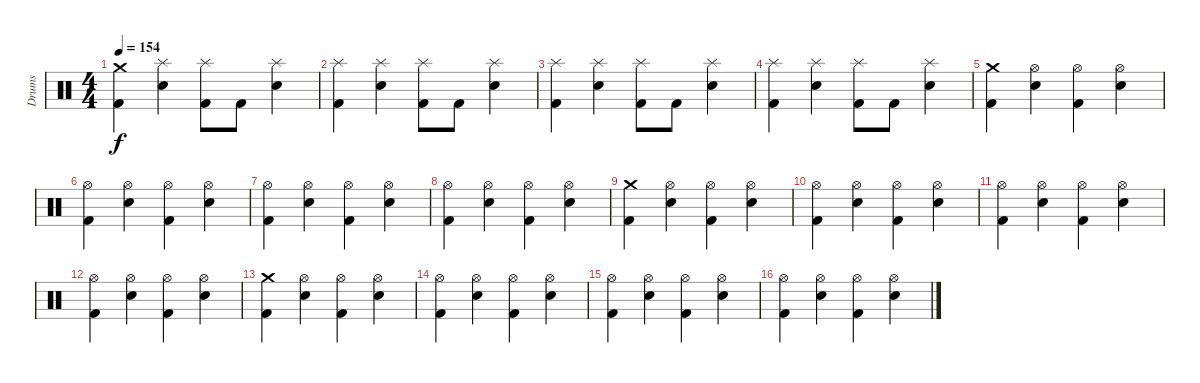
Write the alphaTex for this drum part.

\track ("Drums" "Drums") {instrument percussion}
\staff {score}
\articulation defaults
\ts (4 4)
\tempo 154
\clef neutral
\ks c
("Kick (hit) 2" "Crash medium (hit)").4{dy f} ("Splash (hit)" "Electric Snare (hit)").4 ("Kick (hit) 2" "Splash (hit)").8 "Kick (hit) 2".8 ("Splash (hit)" "Electric Snare (hit)").4 |
("Kick (hit) 2" "Splash (hit)").4 ("Splash (hit)" "Electric Snare (hit)").4 ("Kick (hit) 2" "Splash (hit)").8 "Kick (hit) 2".8 ("Splash (hit)" "Electric Snare (hit)").4 |
("Kick (hit) 2" "Splash (hit)").4 ("Electric Snare (hit)" "Splash (hit)").4 ("Kick (hit) 2" "Splash (hit)").8 "Kick (hit) 2".8 ("Electric Snare (hit)" "Splash (hit)").4 |
("Kick (hit) 2" "Splash (hit)").4 ("Electric Snare (hit)" "Splash (hit)").4 ("Kick (hit) 2" "Splash (hit)").8 "Kick (hit) 2".8 ("Electric Snare (hit)" "Splash (hit)").4 |
("Crash medium (hit)" "Kick (hit) 2").4 ("Hi-Hat (open)" "Electric Snare (hit)").4 ("Hi-Hat (open)" "Kick (hit) 2").4 ("Hi-Hat (open)" "Electric Snare (hit)").4 |
("Hi-Hat (open)" "Kick (hit) 2").4 ("Hi-Hat (open)" "Electric Snare (hit)").4 ("Hi-Hat (open)" "Kick (hit) 2").4 ("Hi-Hat (open)" "Electric Snare (hit)").4 |
("Kick (hit) 2" "Hi-Hat (open)").4 ("Electric Snare (hit)" "Hi-Hat (open)").4 ("Kick (hit) 2" "Hi-Hat (open)").4 ("Electric Snare (hit)" "Hi-Hat (open)").4 |
("Kick (hit) 2" "Hi-Hat (open)").4 ("Electric Snare (hit)" "Hi-Hat (open)").4 ("Kick (hit) 2" "Hi-Hat (open)").4 ("Electric Snare (hit)" "Hi-Hat (open)").4 |
("Crash medium (hit)" "Kick (hit) 2").4 ("Hi-Hat (open)" "Electric Snare (hit)").4 ("Hi-Hat (open)" "Kick (hit) 2").4 ("Hi-Hat (open)" "Electric Snare (hit)").4 |
("Hi-Hat (open)" "Kick (hit) 2").4 ("Hi-Hat (open)" "Electric Snare (hit)").4 ("Hi-Hat (open)" "Kick (hit) 2").4 ("Hi-Hat (open)" "Electric Snare (hit)").4 |
("Kick (hit) 2" "Hi-Hat (open)").4 ("Electric Snare (hit)" "Hi-Hat (open)").4 ("Kick (hit) 2" "Hi-Hat (open)").4 ("Electric Snare (hit)" "Hi-Hat (open)").4 |
("Kick (hit) 2" "Hi-Hat (open)").4 ("Electric Snare (hit)" "Hi-Hat (open)").4 ("Kick (hit) 2" "Hi-Hat (open)").4 ("Electric Snare (hit)" "Hi-Hat (open)").4 |
("Crash medium (hit)" "Kick (hit) 2").4 ("Hi-Hat (open)" "Electric Snare (hit)").4 ("Hi-Hat (open)" "Kick (hit) 2").4 ("Hi-Hat (open)" "Electric Snare (hit)").4 |
("Hi-Hat (open)" "Kick (hit) 2").4 ("Hi-Hat (open)" "Electric Snare (hit)").4 ("Hi-Hat (open)" "Kick (hit) 2").4 ("Hi-Hat (open)" "Electric Snare (hit)").4 |
("Kick (hit) 2" "Hi-Hat (open)").4 ("Electric Snare (hit)" "Hi-Hat (open)").4 ("Kick (hit) 2" "Hi-Hat (open)").4 ("Electric Snare (hit)" "Hi-Hat (open)").4 |
("Kick (hit) 2" "Hi-Hat (open)").4 ("Electric Snare (hit)" "Hi-Hat (open)").4 ("Kick (hit) 2" "Hi-Hat (open)").4 ("Electric Snare (hit)" "Hi-Hat (open)").4
